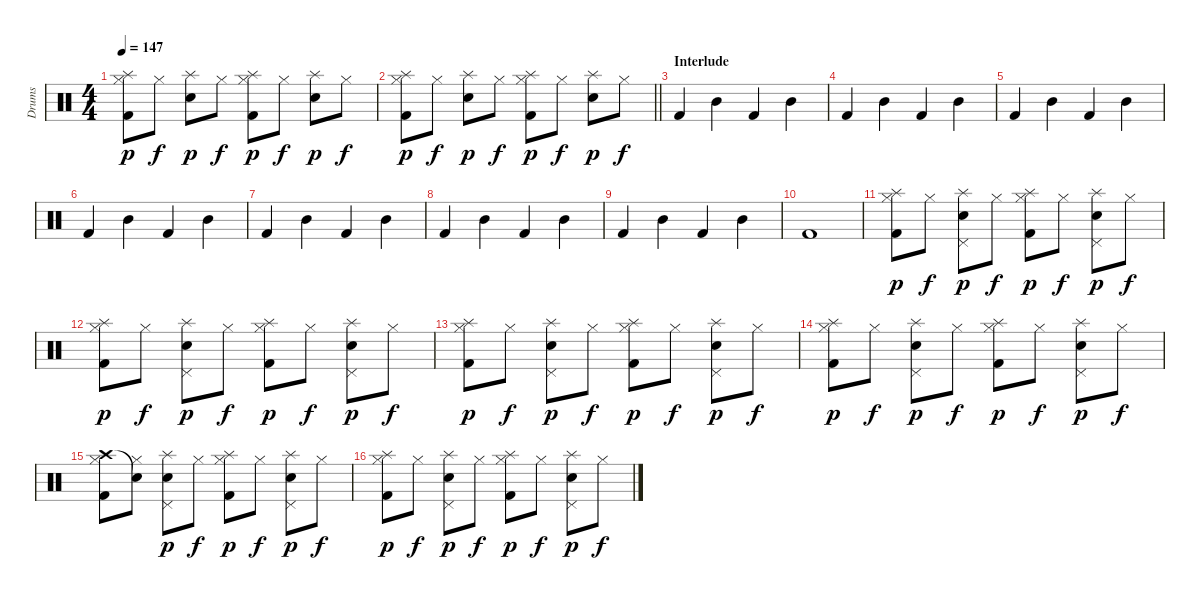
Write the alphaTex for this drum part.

\track ("Drums" "Drums") {instrument percussion}
\staff {score}
\articulation defaults
\ts (4 4)
\tempo 147
\clef neutral
\ks c
("Splash (hit)" "Hi-Hat (closed)" "Kick (hit) 2").8{dy p} "Hi-Hat (closed)".8{dy f} ("Splash (hit)" "Snare (hit) 2").8{dy p} "Hi-Hat (closed)".8{dy f} ("Splash (hit)" "Hi-Hat (closed)" "Kick (hit) 2").8{dy p} "Hi-Hat (closed)".8{dy f} ("Splash (hit)" "Snare (hit) 2").8{dy p} "Hi-Hat (closed)".8{dy f} |
\barLineRight lightlight
("Splash (hit)" "Hi-Hat (closed)" "Kick (hit) 2").8{dy p} "Hi-Hat (closed)".8{dy f} ("Splash (hit)" "Snare (hit) 2").8{dy p} "Hi-Hat (closed)".8{dy f} ("Splash (hit)" "Hi-Hat (closed)" "Kick (hit) 2").8{dy p} "Hi-Hat (closed)".8{dy f} ("Splash (hit)" "Snare (hit) 2").8{dy p} "Hi-Hat (closed)".8{dy f} |
\section ("" "Interlude")
"Kick (hit) 2".4 "Mid Tom (hit)".4 "Kick (hit) 2".4 "Mid Tom (hit)".4 |
"Kick (hit) 2".4 "Mid Tom (hit)".4 "Kick (hit) 2".4 "Mid Tom (hit)".4 |
"Kick (hit) 2".4 "Mid Tom (hit)".4 "Kick (hit) 2".4 "Mid Tom (hit)".4 |
"Kick (hit) 2".4 "Mid Tom (hit)".4 "Kick (hit) 2".4 "Mid Tom (hit)".4 |
"Kick (hit) 2".4 "Mid Tom (hit)".4 "Kick (hit) 2".4 "Mid Tom (hit)".4 |
"Kick (hit) 2".4 "Mid Tom (hit)".4 "Kick (hit) 2".4 "Mid Tom (hit)".4 |
"Kick (hit) 2".4 "Mid Tom (hit)".4 "Kick (hit) 2".4 "Mid Tom (hit)".4 |
"Kick (hit) 2".1 |
("Splash (hit)" "Hi-Hat (closed)" "Kick (hit) 2").8{dy p} "Hi-Hat (closed)".8{dy f} ("Splash (hit)" "Pedal Hi-Hat (hit)" "Snare (hit) 2").8{dy p} "Hi-Hat (closed)".8{dy f} ("Splash (hit)" "Hi-Hat (closed)" "Kick (hit) 2").8{dy p} "Hi-Hat (closed)".8{dy f} ("Splash (hit)" "Pedal Hi-Hat (hit)" "Snare (hit) 2").8{dy p} "Hi-Hat (closed)".8{dy f} |
("Splash (hit)" "Hi-Hat (closed)" "Kick (hit) 2").8{dy p} "Hi-Hat (closed)".8{dy f} ("Splash (hit)" "Pedal Hi-Hat (hit)" "Snare (hit) 2").8{dy p} "Hi-Hat (closed)".8{dy f} ("Splash (hit)" "Hi-Hat (closed)" "Kick (hit) 2").8{dy p} "Hi-Hat (closed)".8{dy f} ("Splash (hit)" "Pedal Hi-Hat (hit)" "Snare (hit) 2").8{dy p} "Hi-Hat (closed)".8{dy f} |
("Splash (hit)" "Hi-Hat (closed)" "Kick (hit) 2").8{dy p} "Hi-Hat (closed)".8{dy f} ("Splash (hit)" "Pedal Hi-Hat (hit)" "Snare (hit) 2").8{dy p} "Hi-Hat (closed)".8{dy f} ("Splash (hit)" "Hi-Hat (closed)" "Kick (hit) 2").8{dy p} "Hi-Hat (closed)".8{dy f} ("Splash (hit)" "Pedal Hi-Hat (hit)" "Snare (hit) 2").8{dy p} "Hi-Hat (closed)".8{dy f} |
("Splash (hit)" "Hi-Hat (closed)" "Kick (hit) 2").8{dy p} "Hi-Hat (closed)".8{dy f} ("Splash (hit)" "Pedal Hi-Hat (hit)" "Snare (hit) 2").8{dy p} "Hi-Hat (closed)".8{dy f} ("Splash (hit)" "Hi-Hat (closed)" "Kick (hit) 2").8{dy p} "Hi-Hat (closed)".8{dy f} ("Splash (hit)" "Pedal Hi-Hat (hit)" "Snare (hit) 2").8{dy p} "Hi-Hat (closed)".8{dy f} |
("Crash high (hit)" "Hi-Hat (closed)" "Kick (hit) 2").8 ("Snare (hit)"{t} "Hi-Hat (closed)").8 ("Splash (hit)" "Pedal Hi-Hat (hit)" "Snare (hit) 2").8{dy p} "Hi-Hat (closed)".8{dy f} ("Splash (hit)" "Hi-Hat (closed)" "Kick (hit) 2").8{dy p} "Hi-Hat (closed)".8{dy f} ("Splash (hit)" "Pedal Hi-Hat (hit)" "Snare (hit) 2").8{dy p} "Hi-Hat (closed)".8{dy f} |
("Splash (hit)" "Hi-Hat (closed)" "Kick (hit) 2").8{dy p} "Hi-Hat (closed)".8{dy f} ("Splash (hit)" "Pedal Hi-Hat (hit)" "Snare (hit) 2").8{dy p} "Hi-Hat (closed)".8{dy f} ("Splash (hit)" "Hi-Hat (closed)" "Kick (hit) 2").8{dy p} "Hi-Hat (closed)".8{dy f} ("Splash (hit)" "Pedal Hi-Hat (hit)" "Snare (hit) 2").8{dy p} "Hi-Hat (closed)".8{dy f}
